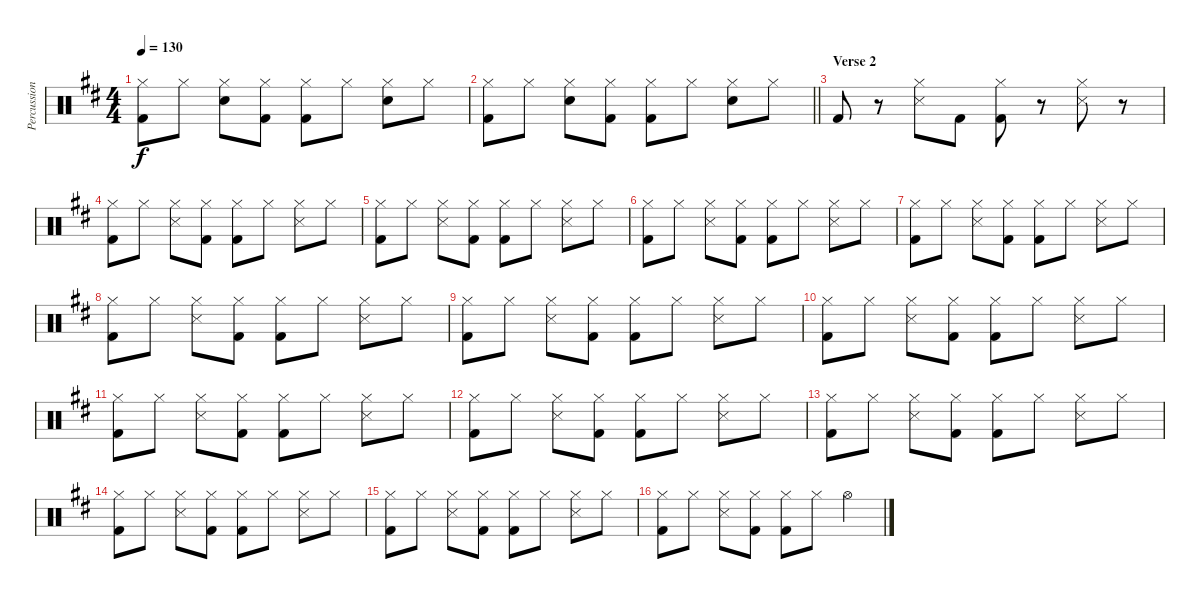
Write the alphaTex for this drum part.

\track ("Percussion" "Percussion") {instrument percussion}
\staff {score}
\articulation defaults
\ts (4 4)
\tempo 130
\clef neutral
\ks d
("Hi-Hat (closed)" "Kick (hit) 2").8{dy f} "Hi-Hat (closed)".8 ("Hi-Hat (closed)" "Electric Snare (hit)").8 ("Hi-Hat (closed)" "Kick (hit) 2").8 ("Hi-Hat (closed)" "Kick (hit) 2").8 "Hi-Hat (closed)".8 ("Hi-Hat (closed)" "Electric Snare (hit)").8 "Hi-Hat (closed)".8 |
\barLineRight lightlight
("Hi-Hat (closed)" "Kick (hit) 2").8 "Hi-Hat (closed)".8 ("Hi-Hat (closed)" "Electric Snare (hit)").8 ("Hi-Hat (closed)" "Kick (hit) 2").8 ("Hi-Hat (closed)" "Kick (hit) 2").8 "Hi-Hat (closed)".8 ("Hi-Hat (closed)" "Electric Snare (hit)").8 "Hi-Hat (closed)".8 |
\section ("" "Verse 2")
"Kick (hit) 2".8 r.8 ("Hi-Hat (closed)" "Snare (side stick) 3").8 "Kick (hit) 2".8 ("Hi-Hat (closed)" "Kick (hit) 2").8 r.8 ("Hi-Hat (closed)" "Snare (side stick) 3").8 r.8 |
("Hi-Hat (closed)" "Kick (hit) 2").8 "Hi-Hat (closed)".8 ("Hi-Hat (closed)" "Snare (side stick) 3").8 ("Hi-Hat (closed)" "Kick (hit) 2").8 ("Hi-Hat (closed)" "Kick (hit) 2").8 "Hi-Hat (closed)".8 ("Hi-Hat (closed)" "Snare (side stick) 3").8 "Hi-Hat (closed)".8 |
("Hi-Hat (closed)" "Kick (hit) 2").8 "Hi-Hat (closed)".8 ("Hi-Hat (closed)" "Snare (side stick) 3").8 ("Hi-Hat (closed)" "Kick (hit) 2").8 ("Hi-Hat (closed)" "Kick (hit) 2").8 "Hi-Hat (closed)".8 ("Hi-Hat (closed)" "Snare (side stick) 3").8 "Hi-Hat (closed)".8 |
("Hi-Hat (closed)" "Kick (hit) 2").8 "Hi-Hat (closed)".8 ("Hi-Hat (closed)" "Snare (side stick) 3").8 ("Hi-Hat (closed)" "Kick (hit) 2").8 ("Hi-Hat (closed)" "Kick (hit) 2").8 "Hi-Hat (closed)".8 ("Hi-Hat (closed)" "Snare (side stick) 3").8 "Hi-Hat (closed)".8 |
("Hi-Hat (closed)" "Kick (hit) 2").8 "Hi-Hat (closed)".8 ("Hi-Hat (closed)" "Snare (side stick) 3").8 ("Hi-Hat (closed)" "Kick (hit) 2").8 ("Hi-Hat (closed)" "Kick (hit) 2").8 "Hi-Hat (closed)".8 ("Hi-Hat (closed)" "Snare (side stick) 3").8 "Hi-Hat (closed)".8 |
("Hi-Hat (closed)" "Kick (hit) 2").8 "Hi-Hat (closed)".8 ("Hi-Hat (closed)" "Snare (side stick) 3").8 ("Hi-Hat (closed)" "Kick (hit) 2").8 ("Hi-Hat (closed)" "Kick (hit) 2").8 "Hi-Hat (closed)".8 ("Hi-Hat (closed)" "Snare (side stick) 3").8 "Hi-Hat (closed)".8 |
("Hi-Hat (closed)" "Kick (hit) 2").8 "Hi-Hat (closed)".8 ("Hi-Hat (closed)" "Snare (side stick) 3").8 ("Hi-Hat (closed)" "Kick (hit) 2").8 ("Hi-Hat (closed)" "Kick (hit) 2").8 "Hi-Hat (closed)".8 ("Hi-Hat (closed)" "Snare (side stick) 3").8 "Hi-Hat (closed)".8 |
("Hi-Hat (closed)" "Kick (hit) 2").8 "Hi-Hat (closed)".8 ("Hi-Hat (closed)" "Snare (side stick) 3").8 ("Hi-Hat (closed)" "Kick (hit) 2").8 ("Hi-Hat (closed)" "Kick (hit) 2").8 "Hi-Hat (closed)".8 ("Hi-Hat (closed)" "Snare (side stick) 3").8 "Hi-Hat (closed)".8 |
("Hi-Hat (closed)" "Kick (hit) 2").8 "Hi-Hat (closed)".8 ("Hi-Hat (closed)" "Snare (side stick) 3").8 ("Hi-Hat (closed)" "Kick (hit) 2").8 ("Hi-Hat (closed)" "Kick (hit) 2").8 "Hi-Hat (closed)".8 ("Hi-Hat (closed)" "Snare (side stick) 3").8 "Hi-Hat (closed)".8 |
("Hi-Hat (closed)" "Kick (hit) 2").8 "Hi-Hat (closed)".8 ("Hi-Hat (closed)" "Snare (side stick) 3").8 ("Hi-Hat (closed)" "Kick (hit) 2").8 ("Hi-Hat (closed)" "Kick (hit) 2").8 "Hi-Hat (closed)".8 ("Hi-Hat (closed)" "Snare (side stick) 3").8 "Hi-Hat (closed)".8 |
("Hi-Hat (closed)" "Kick (hit) 2").8 "Hi-Hat (closed)".8 ("Hi-Hat (closed)" "Snare (side stick) 3").8 ("Hi-Hat (closed)" "Kick (hit) 2").8 ("Hi-Hat (closed)" "Kick (hit) 2").8 "Hi-Hat (closed)".8 ("Hi-Hat (closed)" "Snare (side stick) 3").8 "Hi-Hat (closed)".8 |
("Hi-Hat (closed)" "Kick (hit) 2").8 "Hi-Hat (closed)".8 ("Hi-Hat (closed)" "Snare (side stick) 3").8 ("Hi-Hat (closed)" "Kick (hit) 2").8 ("Hi-Hat (closed)" "Kick (hit) 2").8 "Hi-Hat (closed)".8 ("Hi-Hat (closed)" "Snare (side stick) 3").8 "Hi-Hat (closed)".8 |
("Hi-Hat (closed)" "Kick (hit) 2").8 "Hi-Hat (closed)".8 ("Hi-Hat (closed)" "Snare (side stick) 3").8 ("Hi-Hat (closed)" "Kick (hit) 2").8 ("Hi-Hat (closed)" "Kick (hit) 2").8 "Hi-Hat (closed)".8 ("Hi-Hat (closed)" "Snare (side stick) 3").8 "Hi-Hat (closed)".8 |
("Hi-Hat (closed)" "Kick (hit) 2").8 "Hi-Hat (closed)".8 ("Hi-Hat (closed)" "Snare (side stick) 3").8 ("Hi-Hat (closed)" "Kick (hit) 2").8 ("Hi-Hat (closed)" "Kick (hit) 2").8 "Hi-Hat (closed)".8 "Hi-Hat (open)".4
